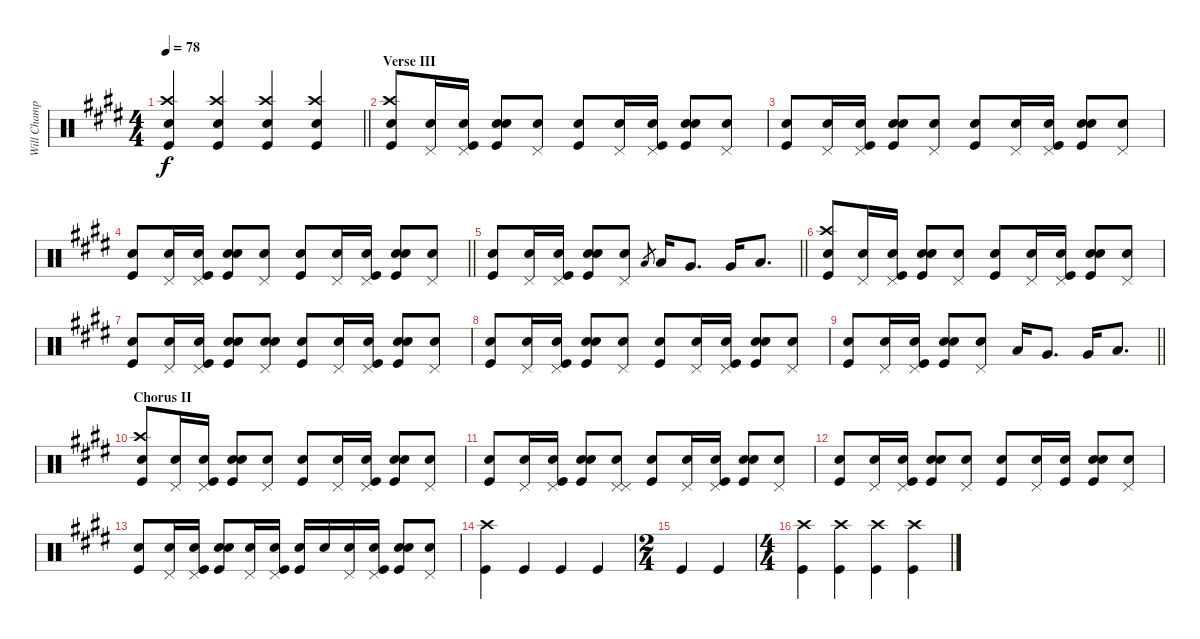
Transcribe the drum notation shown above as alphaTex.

\track ("Will Champion/Drums" "Will Champ") {instrument percussion}
\staff {score}
\articulation defaults
\ts (4 4)
\tempo 78
\clef neutral
\barLineRight lightlight
\ks c#minor
("Snare (hit)" "Crash high (hit)" "Kick (hit)").4{dy f} ("Snare (hit)" "Crash high (hit)" "Kick (hit)").4 ("Snare (hit)" "Crash high (hit)" "Kick (hit)").4 ("Snare (hit)" "Crash high (hit)" "Kick (hit)").4 |
\section ("" "Verse III")
("Snare (hit)" "Crash high (hit)" "Kick (hit)").8 ("Pedal Hi-Hat (hit)" "Snare (hit)").16 ("Snare (hit)" "Pedal Hi-Hat (hit)" "Kick (hit)").16 ("Snare (hit)" "Snare (hit) 2" "Kick (hit)").8 ("Pedal Hi-Hat (hit)" "Snare (hit)").8 ("Snare (hit)" "Kick (hit)").8 ("Pedal Hi-Hat (hit)" "Snare (hit)").16 ("Snare (hit)" "Pedal Hi-Hat (hit)" "Kick (hit)").16 ("Snare (hit)" "Snare (hit) 2" "Kick (hit)").8 ("Pedal Hi-Hat (hit)" "Snare (hit)").8 |
("Snare (hit)" "Kick (hit)").8 ("Pedal Hi-Hat (hit)" "Snare (hit)").16 ("Snare (hit)" "Pedal Hi-Hat (hit)" "Kick (hit)").16 ("Snare (hit)" "Snare (hit) 2" "Kick (hit)").8 ("Pedal Hi-Hat (hit)" "Snare (hit)").8 ("Snare (hit)" "Kick (hit)").8 ("Pedal Hi-Hat (hit)" "Snare (hit)").16 ("Snare (hit)" "Pedal Hi-Hat (hit)" "Kick (hit)").16 ("Snare (hit)" "Snare (hit) 2" "Kick (hit)").8 ("Pedal Hi-Hat (hit)" "Snare (hit)").8 |
\barLineRight lightlight
("Snare (hit)" "Kick (hit)").8 ("Pedal Hi-Hat (hit)" "Snare (hit)").16 ("Snare (hit)" "Pedal Hi-Hat (hit)" "Kick (hit)").16 ("Snare (hit)" "Snare (hit) 2" "Kick (hit)").8 ("Pedal Hi-Hat (hit)" "Snare (hit)").8 ("Snare (hit)" "Kick (hit)").8 ("Pedal Hi-Hat (hit)" "Snare (hit)").16 ("Snare (hit)" "Pedal Hi-Hat (hit)" "Kick (hit)").16 ("Snare (hit)" "Snare (hit) 2" "Kick (hit)").8 ("Pedal Hi-Hat (hit)" "Snare (hit)").8 |
\barLineRight lightlight
("Snare (hit)" "Kick (hit)").8 ("Pedal Hi-Hat (hit)" "Snare (hit)").16 ("Snare (hit)" "Pedal Hi-Hat (hit)" "Kick (hit)").16 ("Snare (hit)" "Snare (hit) 2" "Kick (hit)").8 ("Pedal Hi-Hat (hit)" "Snare (hit)").8 "Low Tom (hit)".8{gr} "Low Tom (hit)".16 "Very Low Tom (hit)".8{d} "Very Low Tom (hit)".16 "Low Floor Tom (hit)".8{d} |
("Snare (hit)" "Crash high (hit)" "Kick (hit)").8 ("Pedal Hi-Hat (hit)" "Snare (hit)").16 ("Snare (hit)" "Pedal Hi-Hat (hit)" "Kick (hit)").16 ("Snare (hit)" "Snare (hit) 2" "Kick (hit)").8 ("Pedal Hi-Hat (hit)" "Snare (hit)").8 ("Snare (hit)" "Kick (hit)").8 ("Pedal Hi-Hat (hit)" "Snare (hit)").16 ("Snare (hit)" "Pedal Hi-Hat (hit)" "Kick (hit)").16 ("Snare (hit)" "Snare (hit) 2" "Kick (hit)").8 ("Pedal Hi-Hat (hit)" "Snare (hit)").8 |
("Snare (hit)" "Kick (hit)").8 ("Pedal Hi-Hat (hit)" "Snare (hit)").16 ("Snare (hit)" "Pedal Hi-Hat (hit)" "Kick (hit)").16 ("Snare (hit)" "Snare (hit) 2" "Kick (hit)").8 ("Pedal Hi-Hat (hit)" "Snare (hit)" "Snare (hit)").8 ("Snare (hit)" "Kick (hit)").8 ("Pedal Hi-Hat (hit)" "Snare (hit)").16 ("Snare (hit)" "Pedal Hi-Hat (hit)" "Kick (hit)").16 ("Snare (hit)" "Snare (hit) 2" "Kick (hit)").8 ("Pedal Hi-Hat (hit)" "Snare (hit)").8 |
("Snare (hit)" "Kick (hit)").8 ("Pedal Hi-Hat (hit)" "Snare (hit)").16 ("Snare (hit)" "Pedal Hi-Hat (hit)" "Kick (hit)").16 ("Snare (hit)" "Snare (hit) 2" "Kick (hit)").8 ("Pedal Hi-Hat (hit)" "Snare (hit)").8 ("Snare (hit)" "Kick (hit)").8 ("Pedal Hi-Hat (hit)" "Snare (hit)").16 ("Snare (hit)" "Pedal Hi-Hat (hit)" "Kick (hit)").16 ("Snare (hit)" "Snare (hit) 2" "Kick (hit)").8 ("Pedal Hi-Hat (hit)" "Snare (hit)").8 |
\barLineRight lightlight
("Snare (hit)" "Kick (hit)").8 ("Pedal Hi-Hat (hit)" "Snare (hit)").16 ("Snare (hit)" "Pedal Hi-Hat (hit)" "Kick (hit)").16 ("Snare (hit)" "Snare (hit) 2" "Kick (hit)").8 ("Pedal Hi-Hat (hit)" "Snare (hit)").8 "Low Tom (hit)".16 "Very Low Tom (hit)".8{d} "Very Low Tom (hit)".16 "Low Floor Tom (hit)".8{d} |
\section ("" "Chorus II")
("Snare (hit)" "Crash high (hit)" "Kick (hit)").8 ("Pedal Hi-Hat (hit)" "Snare (hit)").16 ("Snare (hit)" "Pedal Hi-Hat (hit)" "Kick (hit)").16 ("Snare (hit)" "Snare (hit) 2" "Kick (hit)").8 ("Pedal Hi-Hat (hit)" "Snare (hit)").8 ("Snare (hit)" "Kick (hit)").8 ("Pedal Hi-Hat (hit)" "Snare (hit)").16 ("Snare (hit)" "Pedal Hi-Hat (hit)" "Kick (hit)").16 ("Snare (hit)" "Snare (hit) 2" "Kick (hit)").8 ("Pedal Hi-Hat (hit)" "Snare (hit)").8 |
("Snare (hit)" "Kick (hit)").8 ("Pedal Hi-Hat (hit)" "Snare (hit)").16 ("Snare (hit)" "Pedal Hi-Hat (hit)" "Kick (hit)").16 ("Snare (hit)" "Snare (hit) 2" "Kick (hit)").8 ("Pedal Hi-Hat (hit)" "Pedal Hi-Hat (hit)" "Snare (hit)").8 ("Snare (hit)" "Kick (hit)").8 ("Pedal Hi-Hat (hit)" "Snare (hit)").16 ("Snare (hit)" "Pedal Hi-Hat (hit)" "Kick (hit)").16 ("Snare (hit)" "Snare (hit) 2" "Kick (hit)").8 ("Pedal Hi-Hat (hit)" "Snare (hit)").8 |
("Snare (hit)" "Kick (hit)").8 ("Pedal Hi-Hat (hit)" "Snare (hit)").16 ("Snare (hit)" "Pedal Hi-Hat (hit)" "Kick (hit)").16 ("Snare (hit)" "Snare (hit) 2" "Kick (hit)").8 ("Pedal Hi-Hat (hit)" "Snare (hit)").8 ("Snare (hit)" "Kick (hit)").8 ("Pedal Hi-Hat (hit)" "Snare (hit)").16 ("Snare (hit)" "Kick (hit)").16 ("Snare (hit)" "Snare (hit) 2" "Kick (hit)").8 ("Pedal Hi-Hat (hit)" "Snare (hit)").8 |
("Snare (hit)" "Kick (hit)").8 ("Pedal Hi-Hat (hit)" "Snare (hit)").16 ("Snare (hit)" "Pedal Hi-Hat (hit)" "Kick (hit)").16 ("Snare (hit)" "Snare (hit) 2" "Kick (hit)").8 ("Pedal Hi-Hat (hit)" "Snare (hit)").16 ("Pedal Hi-Hat (hit)" "Snare (hit)" "Kick (hit)").16 ("Snare (hit)" "Kick (hit)").16 "Snare (hit) 2".16 ("Snare (hit)" "Pedal Hi-Hat (hit)").16 ("Snare (hit)" "Pedal Hi-Hat (hit)" "Kick (hit)").16 ("Snare (hit)" "Snare (hit) 2" "Kick (hit)").8 ("Pedal Hi-Hat (hit)" "Snare (hit)").8 |
("Crash high (hit)" "Kick (hit)").4 "Kick (hit)".4 "Kick (hit)".4 "Kick (hit)".4 |
\ts (2 4)
"Kick (hit)".4 "Kick (hit)".4 |
\ts (4 4)
("Crash high (hit)" "Kick (hit)").4 ("Crash high (hit)" "Kick (hit)").4 ("Crash high (hit)" "Kick (hit)").4 ("Crash high (hit)" "Kick (hit)").4
